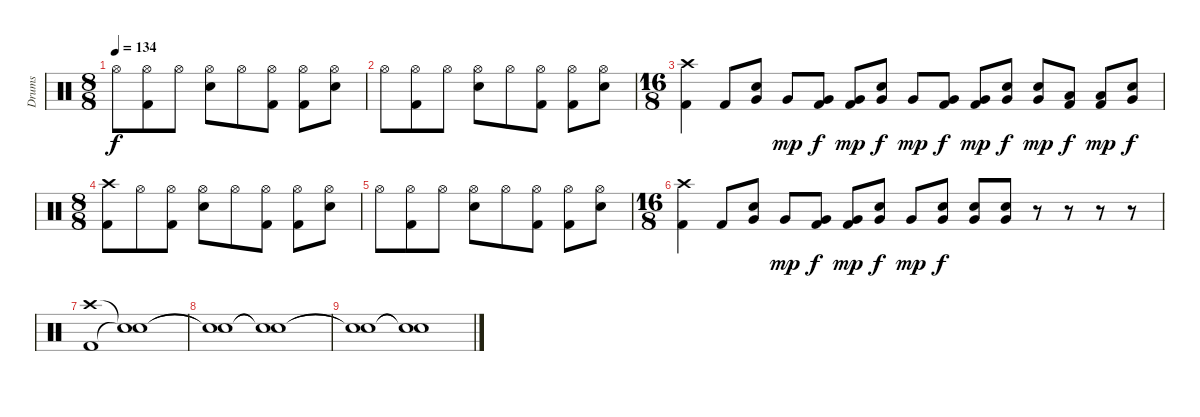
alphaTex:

\track ("Drums" "Drums") {instrument percussion}
\staff {score}
\articulation defaults
\ts (8 8)
\tempo 134
\clef neutral
\ks c "Hi-Hat (open)".8{dy f}
("Hi-Hat (open)" "Kick (hit) 2").8 "Hi-Hat (open)".8 ("Hi-Hat (open)" "Snare (hit) 2").8 "Hi-Hat (open)".8 ("Hi-Hat (open)" "Kick (hit) 2").8 ("Hi-Hat (open)" "Kick (hit) 2").8 ("Hi-Hat (open)" "Snare (hit) 2").8 |
"Hi-Hat (open)".8 ("Hi-Hat (open)" "Kick (hit) 2").8 "Hi-Hat (open)".8 ("Hi-Hat (open)" "Snare (hit) 2").8 "Hi-Hat (open)".8 ("Hi-Hat (open)" "Kick (hit) 2").8 ("Hi-Hat (open)" "Kick (hit) 2").8 ("Hi-Hat (open)" "Snare (hit) 2").8 |
\ts (16 8)
("Crash high (hit)" "Kick (hit) 2").4 "Kick (hit) 2".8 ("Very Low Tom (hit)" "Snare (hit) 2").8 "Very Low Tom (hit)".8{dy mp} ("Very Low Tom (hit)" "Kick (hit) 2").8{dy f} ("Very Low Tom (hit)" "Kick (hit) 2").8{dy mp} ("Very Low Tom (hit)" "Snare (hit) 2").8{dy f} "Very Low Tom (hit)".8{dy mp} ("Very Low Tom (hit)" "Kick (hit) 2").8{dy f} ("Very Low Tom (hit)" "Kick (hit) 2").8{dy mp} ("Very Low Tom (hit)" "Snare (hit) 2").8{dy f} ("Very Low Tom (hit)" "Snare (hit) 2").8{dy mp} ("Low Tom (hit)" "Kick (hit) 2").8{dy f} ("Low Tom (hit)" "Kick (hit) 2").8{dy mp} ("Very Low Tom (hit)" "Snare (hit) 2").8{dy f} |
\ts (8 8)
("Crash high (hit)" "Kick (hit) 2").8 "Hi-Hat (open)".8 ("Hi-Hat (open)" "Kick (hit) 2").8 ("Hi-Hat (open)" "Snare (hit) 2").8 "Hi-Hat (open)".8 ("Hi-Hat (open)" "Kick (hit) 2").8 ("Hi-Hat (open)" "Kick (hit) 2").8 ("Hi-Hat (open)" "Snare (hit) 2").8 |
"Hi-Hat (open)".8 ("Hi-Hat (open)" "Kick (hit) 2").8 "Hi-Hat (open)".8 ("Hi-Hat (open)" "Snare (hit) 2").8 "Hi-Hat (open)".8 ("Hi-Hat (open)" "Kick (hit) 2").8 ("Hi-Hat (open)" "Kick (hit) 2").8 ("Hi-Hat (open)" "Snare (hit) 2").8 |
\ts (16 8)
("Crash high (hit)" "Kick (hit) 2").4 "Kick (hit) 2".8 ("Very Low Tom (hit)" "Snare (hit) 2").8 "Very Low Tom (hit)".8{dy mp} ("Very Low Tom (hit)" "Kick (hit) 2").8{dy f} ("Very Low Tom (hit)" "Kick (hit) 2").8{dy mp} ("Very Low Tom (hit)" "Snare (hit) 2").8{dy f} "Very Low Tom (hit)".8{dy mp} ("Very Low Tom (hit)" "Snare (hit) 2").8{dy f} ("Very Low Tom (hit)" "Snare (hit) 2").8 ("Very Low Tom (hit)" "Snare (hit) 2").8 r.8 r.8 r.8 r.8 |
("Crash high (hit)" "Kick (hit) 2").1 ("Snare (hit)"{t} "Snare (hit)"{t}).1 |
("Snare (hit)"{t} "Snare (hit)"{t}).1 ("Snare (hit)"{t} "Snare (hit)"{t}).1 |
("Snare (hit)"{t} "Snare (hit)"{t}).1 ("Snare (hit)"{t} "Snare (hit)"{t}).1
